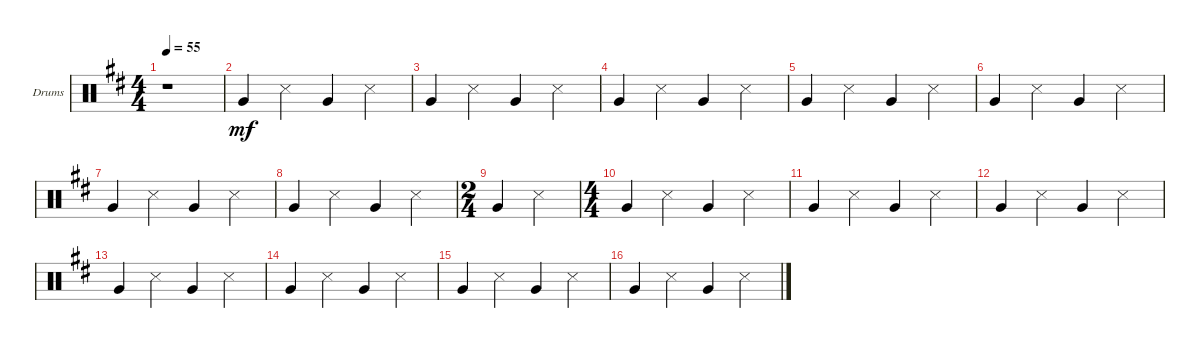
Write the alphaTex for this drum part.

\defaultSystemsLayout 4
\bracketExtendMode groupsimilarinstruments
\firstSystemTrackNameOrientation horizontal
\otherSystemsTrackNameOrientation horizontal
\track ("Drumkit" "Drums") {instrument percussion}
\staff {score}
\articulation defaults
\ts (4 4)
\tempo 55
\clef neutral
\ks d
r.1{dy mf} |
"Very Low Tom (hit)".4 "Snare (side stick) 3".4 "Very Low Tom (hit)".4 "Snare (side stick) 3".4 |
"Very Low Tom (hit)".4 "Snare (side stick) 3".4 "Very Low Tom (hit)".4 "Snare (side stick) 3".4 |
"Very Low Tom (hit)".4 "Snare (side stick) 3".4 "Very Low Tom (hit)".4 "Snare (side stick) 3".4 |
"Very Low Tom (hit)".4 "Snare (side stick) 3".4 "Very Low Tom (hit)".4 "Snare (side stick) 3".4 |
"Very Low Tom (hit)".4 "Snare (side stick) 3".4 "Very Low Tom (hit)".4 "Snare (side stick) 3".4 |
"Very Low Tom (hit)".4 "Snare (side stick) 3".4 "Very Low Tom (hit)".4 "Snare (side stick) 3".4 |
"Very Low Tom (hit)".4 "Snare (side stick) 3".4 "Very Low Tom (hit)".4 "Snare (side stick) 3".4 |
\ts (2 4)
"Very Low Tom (hit)".4 "Snare (side stick) 3".4 |
\ts (4 4)
"Very Low Tom (hit)".4 "Snare (side stick) 3".4 "Very Low Tom (hit)".4 "Snare (side stick) 3".4 |
"Very Low Tom (hit)".4 "Snare (side stick) 3".4 "Very Low Tom (hit)".4 "Snare (side stick) 3".4 |
"Very Low Tom (hit)".4 "Snare (side stick) 3".4 "Very Low Tom (hit)".4 "Snare (side stick) 3".4 |
"Very Low Tom (hit)".4 "Snare (side stick) 3".4 "Very Low Tom (hit)".4 "Snare (side stick) 3".4 |
"Very Low Tom (hit)".4 "Snare (side stick) 3".4 "Very Low Tom (hit)".4 "Snare (side stick) 3".4 |
"Very Low Tom (hit)".4 "Snare (side stick) 3".4 "Very Low Tom (hit)".4 "Snare (side stick) 3".4 |
"Very Low Tom (hit)".4 "Snare (side stick) 3".4 "Very Low Tom (hit)".4 "Snare (side stick) 3".4
